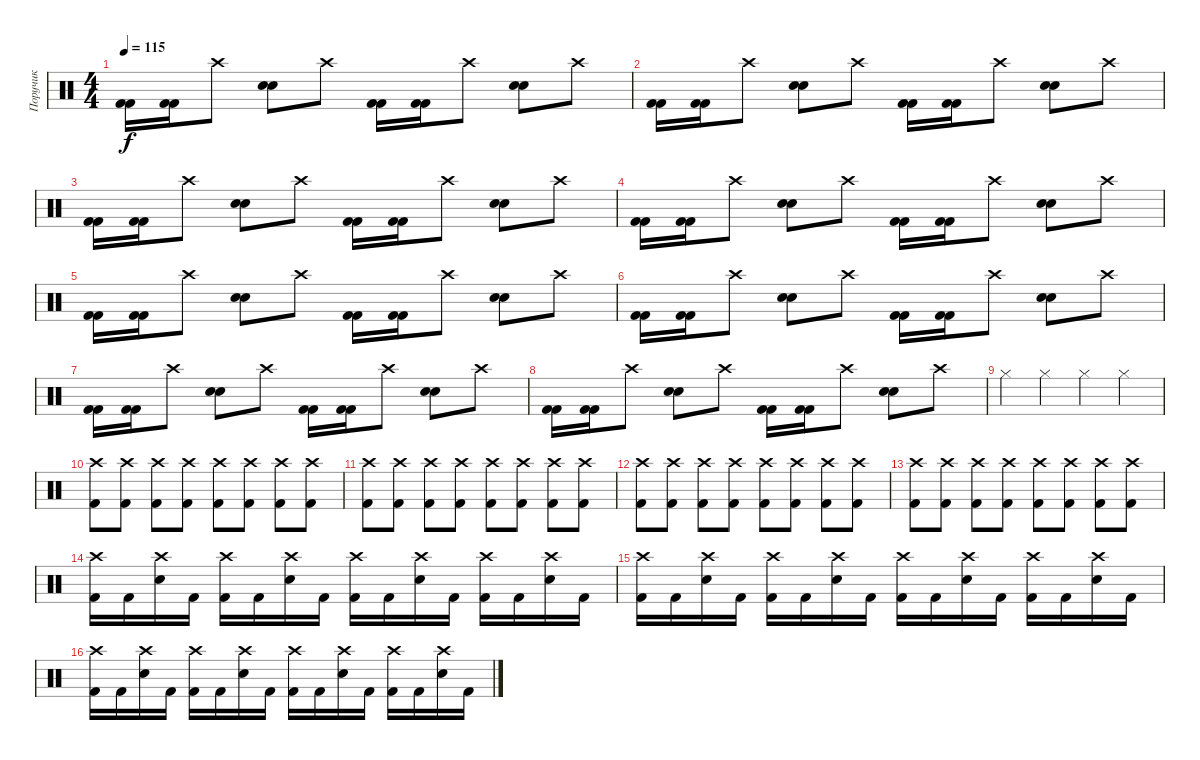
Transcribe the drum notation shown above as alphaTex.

\track ("Поручик" "Поручик") {instrument percussion}
\staff {score}
\articulation defaults
\ts (4 4)
\tempo 115
\clef neutral
\ks c
("Kick (hit) 2" "Kick (hit) 2").16{dy f} ("Kick (hit) 2" "Kick (hit) 2").16 "Crash high (hit)".8 ("Snare (hit) 2" "Snare (hit) 2").8 "Crash high (hit)".8 ("Kick (hit) 2" "Kick (hit) 2").16 ("Kick (hit) 2" "Kick (hit) 2").16 "Crash high (hit)".8 ("Snare (hit) 2" "Snare (hit) 2").8 "Crash high (hit)".8 |
("Kick (hit) 2" "Kick (hit) 2").16 ("Kick (hit) 2" "Kick (hit) 2").16 "Crash high (hit)".8 ("Snare (hit) 2" "Snare (hit) 2").8 "Crash high (hit)".8 ("Kick (hit) 2" "Kick (hit) 2").16 ("Kick (hit) 2" "Kick (hit) 2").16 "Crash high (hit)".8 ("Snare (hit) 2" "Snare (hit) 2").8 "Crash high (hit)".8 |
("Kick (hit) 2" "Kick (hit) 2").16 ("Kick (hit) 2" "Kick (hit) 2").16 "Crash high (hit)".8 ("Snare (hit) 2" "Snare (hit) 2").8 "Crash high (hit)".8 ("Kick (hit) 2" "Kick (hit) 2").16 ("Kick (hit) 2" "Kick (hit) 2").16 "Crash high (hit)".8 ("Snare (hit) 2" "Snare (hit) 2").8 "Crash high (hit)".8 |
("Kick (hit) 2" "Kick (hit) 2").16 ("Kick (hit) 2" "Kick (hit) 2").16 "Crash high (hit)".8 ("Snare (hit) 2" "Snare (hit) 2").8 "Crash high (hit)".8 ("Kick (hit) 2" "Kick (hit) 2").16 ("Kick (hit) 2" "Kick (hit) 2").16 "Crash high (hit)".8 ("Snare (hit) 2" "Snare (hit) 2").8 "Crash high (hit)".8 |
("Kick (hit) 2" "Kick (hit) 2").16 ("Kick (hit) 2" "Kick (hit) 2").16 "Crash high (hit)".8 ("Snare (hit) 2" "Snare (hit) 2").8 "Crash high (hit)".8 ("Kick (hit) 2" "Kick (hit) 2").16 ("Kick (hit) 2" "Kick (hit) 2").16 "Crash high (hit)".8 ("Snare (hit) 2" "Snare (hit) 2").8 "Crash high (hit)".8 |
("Kick (hit) 2" "Kick (hit) 2").16 ("Kick (hit) 2" "Kick (hit) 2").16 "Crash high (hit)".8 ("Snare (hit) 2" "Snare (hit) 2").8 "Crash high (hit)".8 ("Kick (hit) 2" "Kick (hit) 2").16 ("Kick (hit) 2" "Kick (hit) 2").16 "Crash high (hit)".8 ("Snare (hit) 2" "Snare (hit) 2").8 "Crash high (hit)".8 |
("Kick (hit) 2" "Kick (hit) 2").16 ("Kick (hit) 2" "Kick (hit) 2").16 "Crash high (hit)".8 ("Snare (hit) 2" "Snare (hit) 2").8 "Crash high (hit)".8 ("Kick (hit) 2" "Kick (hit) 2").16 ("Kick (hit) 2" "Kick (hit) 2").16 "Crash high (hit)".8 ("Snare (hit) 2" "Snare (hit) 2").8 "Crash high (hit)".8 |
("Kick (hit) 2" "Kick (hit) 2").16 ("Kick (hit) 2" "Kick (hit) 2").16 "Crash high (hit)".8 ("Snare (hit) 2" "Snare (hit) 2").8 "Crash high (hit)".8 ("Kick (hit) 2" "Kick (hit) 2").16 ("Kick (hit) 2" "Kick (hit) 2").16 "Crash high (hit)".8 ("Snare (hit) 2" "Snare (hit) 2").8 "Crash high (hit)".8 |
"Hi-Hat (closed)".4 "Hi-Hat (closed)".4 "Hi-Hat (closed)".4 "Hi-Hat (closed)".4 |
("Kick (hit) 2" "Crash high (hit)").8 ("Kick (hit) 2" "Crash high (hit)").8 ("Kick (hit) 2" "Crash high (hit)").8 ("Kick (hit) 2" "Crash high (hit)").8 ("Kick (hit) 2" "Crash high (hit)").8 ("Kick (hit) 2" "Crash high (hit)").8 ("Kick (hit) 2" "Crash high (hit)").8 ("Kick (hit) 2" "Crash high (hit)").8 |
("Kick (hit) 2" "Crash high (hit)").8 ("Kick (hit) 2" "Crash high (hit)").8 ("Kick (hit) 2" "Crash high (hit)").8 ("Kick (hit) 2" "Crash high (hit)").8 ("Kick (hit) 2" "Crash high (hit)").8 ("Kick (hit) 2" "Crash high (hit)").8 ("Kick (hit) 2" "Crash high (hit)").8 ("Kick (hit) 2" "Crash high (hit)").8 |
("Kick (hit) 2" "Crash high (hit)").8 ("Kick (hit) 2" "Crash high (hit)").8 ("Kick (hit) 2" "Crash high (hit)").8 ("Kick (hit) 2" "Crash high (hit)").8 ("Kick (hit) 2" "Crash high (hit)").8 ("Kick (hit) 2" "Crash high (hit)").8 ("Kick (hit) 2" "Crash high (hit)").8 ("Kick (hit) 2" "Crash high (hit)").8 |
("Kick (hit) 2" "Crash high (hit)").8 ("Kick (hit) 2" "Crash high (hit)").8 ("Kick (hit) 2" "Crash high (hit)").8 ("Kick (hit) 2" "Crash high (hit)").8 ("Kick (hit) 2" "Crash high (hit)").8 ("Kick (hit) 2" "Crash high (hit)").8 ("Kick (hit) 2" "Crash high (hit)").8 ("Kick (hit) 2" "Crash high (hit)").8 |
("Kick (hit) 2" "Crash high (hit)").16 "Kick (hit) 2".16 ("Snare (hit) 2" "Crash high (hit)").16 "Kick (hit) 2".16 ("Kick (hit) 2" "Crash high (hit)").16 "Kick (hit) 2".16 ("Snare (hit) 2" "Crash high (hit)").16 "Kick (hit) 2".16 ("Kick (hit) 2" "Crash high (hit)").16 "Kick (hit) 2".16 ("Snare (hit) 2" "Crash high (hit)").16 "Kick (hit) 2".16 ("Kick (hit) 2" "Crash high (hit)").16 "Kick (hit) 2".16 ("Snare (hit) 2" "Crash high (hit)").16 "Kick (hit) 2".16 |
("Kick (hit) 2" "Crash high (hit)").16 "Kick (hit) 2".16 ("Snare (hit) 2" "Crash high (hit)").16 "Kick (hit) 2".16 ("Kick (hit) 2" "Crash high (hit)").16 "Kick (hit) 2".16 ("Snare (hit) 2" "Crash high (hit)").16 "Kick (hit) 2".16 ("Kick (hit) 2" "Crash high (hit)").16 "Kick (hit) 2".16 ("Snare (hit) 2" "Crash high (hit)").16 "Kick (hit) 2".16 ("Kick (hit) 2" "Crash high (hit)").16 "Kick (hit) 2".16 ("Snare (hit) 2" "Crash high (hit)").16 "Kick (hit) 2".16 |
("Kick (hit) 2" "Crash high (hit)").16 "Kick (hit) 2".16 ("Snare (hit) 2" "Crash high (hit)").16 "Kick (hit) 2".16 ("Kick (hit) 2" "Crash high (hit)").16 "Kick (hit) 2".16 ("Snare (hit) 2" "Crash high (hit)").16 "Kick (hit) 2".16 ("Kick (hit) 2" "Crash high (hit)").16 "Kick (hit) 2".16 ("Snare (hit) 2" "Crash high (hit)").16 "Kick (hit) 2".16 ("Kick (hit) 2" "Crash high (hit)").16 "Kick (hit) 2".16 ("Snare (hit) 2" "Crash high (hit)").16 "Kick (hit) 2".16
